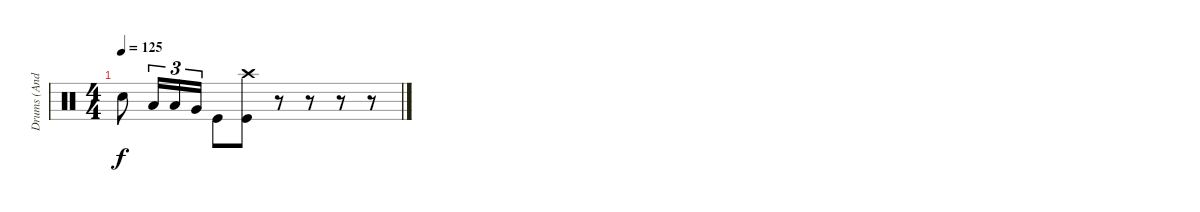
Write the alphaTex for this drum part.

\track ("Drums (Andy Parker)" "Drums (And") {instrument percussion}
\staff {score}
\articulation defaults
\ts (4 4)
\tempo 125
\clef neutral
\ks c "Electric Snare (hit)".8{dy f} "Low Tom (hit)".16{tu (3 2)} "Low Tom (hit)".16{tu (3 2)} "Very Low Tom (hit)".16{tu (3 2)} "Kick (hit)".8
("Crash high (hit)" "Kick (hit)").8 r.8 r.8 r.8 r.8
